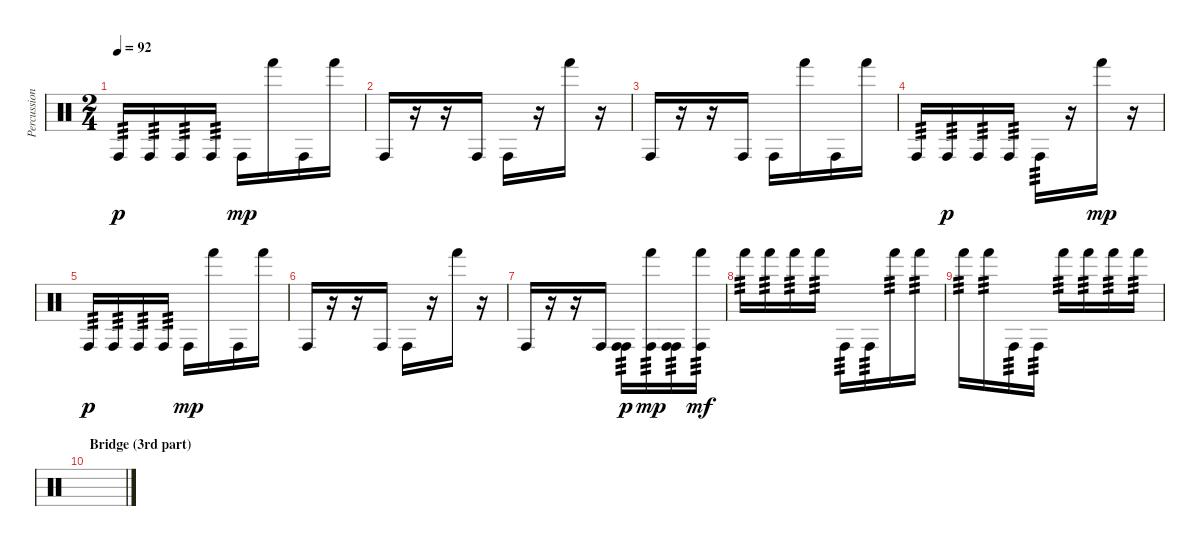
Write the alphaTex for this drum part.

\track ("Percussions" "Percussion") {instrument percussion}
\staff {score}
\articulation defaults
\ts (2 4)
\tempo 92
\clef neutral
\ks c "Conga high (hit)".16{tp 3 dy p} "Conga high (hit)".16{tp 3} "Conga high (hit)".16{tp 3} "Conga high (hit)".16{tp 3} "Conga high (hit)".16{dy mp} "Hand (hit)".16 "Conga high (hit)".16 "Hand (hit)".16
|
"Conga high (hit)".16 r.16 r.16 "Conga high (hit)".16 "Conga high (hit)".16 r.16 "Hand (hit)".16 r.16 |
"Conga high (hit)".16 r.16 r.16 "Conga high (hit)".16 "Conga high (hit)".16 "Hand (hit)".16 "Conga high (hit)".16 "Hand (hit)".16 |
"Conga high (hit)".16{tp 3} "Conga high (hit)".16{tp 3 dy p} "Conga high (hit)".16{tp 3} "Conga high (hit)".16{tp 3} "Conga high (hit)".16{tp 3} r.16 "Hand (hit)".16{dy mp} r.16 |
"Conga high (hit)".16{tp 3 dy p} "Conga high (hit)".16{tp 3} "Conga high (hit)".16{tp 3} "Conga high (hit)".16{tp 3} "Conga high (hit)".16{dy mp} "Hand (hit)".16 "Conga high (hit)".16 "Hand (hit)".16 |
"Conga high (hit)".16 r.16 r.16 "Conga high (hit)".16 "Conga high (hit)".16 r.16 "Hand (hit)".16 r.16 |
"Conga high (hit)".16 r.16 r.16 "Conga high (hit)".16 ("Conga high (hit)" "Conga high (hit)").16{tp 3 dy p} ("Hand (hit)" "Conga high (hit)").16{tp 3 dy mp} ("Conga high (hit)" "Conga high (hit)").16{tp 3} ("Hand (hit)" "Conga high (hit)").16{tp 3 dy mf} |
"Hand (hit)".16{tp 3} "Hand (hit)".16{tp 3} "Hand (hit)".16{tp 3} "Hand (hit)".16{tp 3} "Conga high (hit)".16{tp 3} "Conga high (hit)".16{tp 3} "Hand (hit)".16{tp 3} "Hand (hit)".16{tp 3} |
"Hand (hit)".16{tp 3} "Hand (hit)".16{tp 3} "Conga high (hit)".16{tp 3} "Conga high (hit)".16{tp 3} "Hand (hit)".16{tp 3} "Hand (hit)".16{tp 3} "Hand (hit)".16{tp 3} "Hand (hit)".16{tp 3} |
\section ("" "Bridge (3rd part)")
